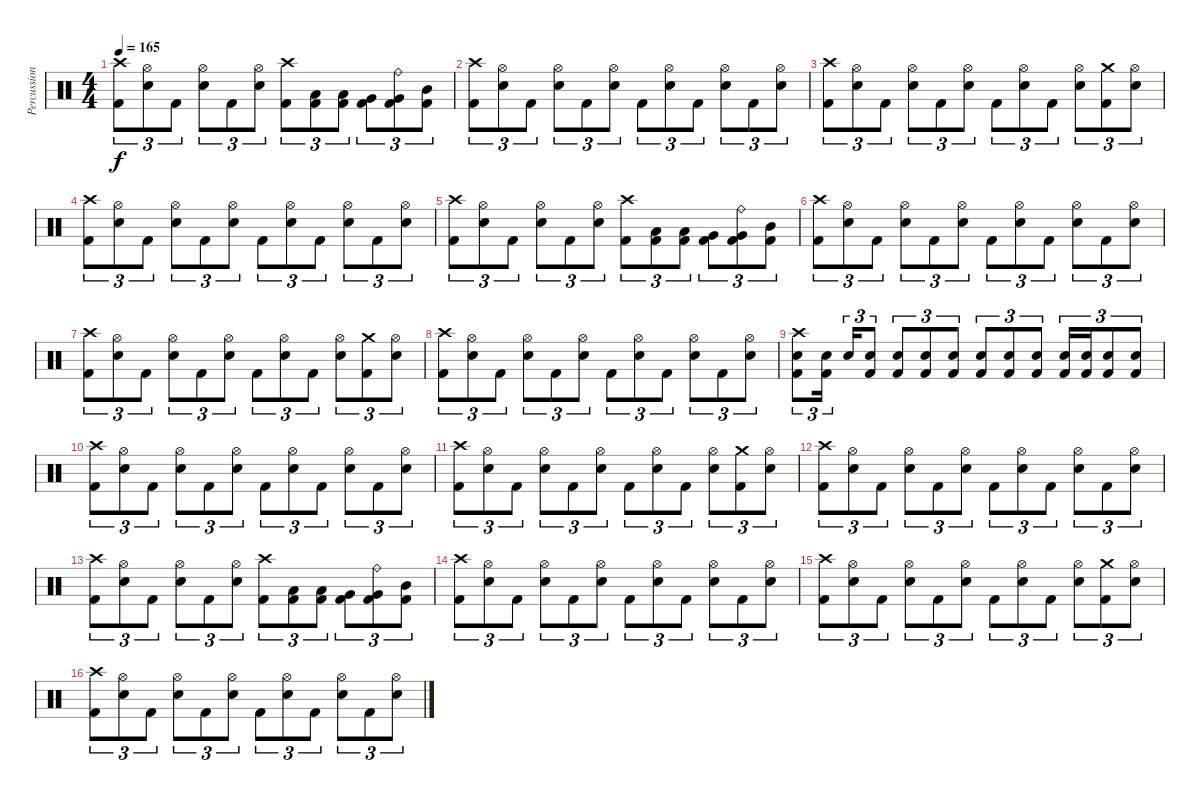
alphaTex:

\track ("Percussion" "Percussion") {instrument percussion}
\staff {score}
\articulation defaults
\ts (4 4)
\tempo 165
\clef neutral
\ks c
("Crash high (hit)" "Kick (hit) 2").8{tu (3 2) dy f} ("Hi-Hat (open)" "Electric Snare (hit)").8{tu (3 2)} "Kick (hit) 2".8{tu (3 2)} ("Hi-Hat (open)" "Electric Snare (hit)").8{tu (3 2)} "Kick (hit) 2".8{tu (3 2)} ("Hi-Hat (open)" "Electric Snare (hit)").8{tu (3 2)} ("Crash high (hit)" "Kick (hit) 2").8{tu (3 2)} ("Low Tom (hit)" "Kick (hit) 2").8{tu (3 2)} ("Low Tom (hit)" "Kick (hit) 2").8{tu (3 2)} ("Very Low Tom (hit)" "Kick (hit) 2").8{tu (3 2)} ("Ride (bell)" "Very Low Tom (hit)" "Kick (hit) 2").8{tu (3 2)} ("Mid Tom (hit)" "Kick (hit) 2").8{tu (3 2)} |
("Crash high (hit)" "Kick (hit) 2").8{tu (3 2)} ("Hi-Hat (open)" "Electric Snare (hit)").8{tu (3 2)} "Kick (hit) 2".8{tu (3 2)} ("Hi-Hat (open)" "Electric Snare (hit)").8{tu (3 2)} "Kick (hit) 2".8{tu (3 2)} ("Hi-Hat (open)" "Electric Snare (hit)").8{tu (3 2)} "Kick (hit) 2".8{tu (3 2)} ("Hi-Hat (open)" "Electric Snare (hit)").8{tu (3 2)} "Kick (hit) 2".8{tu (3 2)} ("Hi-Hat (open)" "Electric Snare (hit)").8{tu (3 2)} "Kick (hit) 2".8{tu (3 2)} ("Hi-Hat (open)" "Electric Snare (hit)").8{tu (3 2)} |
("Crash high (hit)" "Kick (hit) 2").8{tu (3 2)} ("Hi-Hat (open)" "Electric Snare (hit)").8{tu (3 2)} "Kick (hit) 2".8{tu (3 2)} ("Hi-Hat (open)" "Electric Snare (hit)").8{tu (3 2)} "Kick (hit) 2".8{tu (3 2)} ("Hi-Hat (open)" "Electric Snare (hit)").8{tu (3 2)} "Kick (hit) 2".8{tu (3 2)} ("Hi-Hat (open)" "Electric Snare (hit)").8{tu (3 2)} "Kick (hit) 2".8{tu (3 2)} ("Hi-Hat (open)" "Electric Snare (hit)").8{tu (3 2)} ("Crash medium (hit)" "Kick (hit) 2").8{tu (3 2)} ("Hi-Hat (open)" "Electric Snare (hit)").8{tu (3 2)} |
("Crash high (hit)" "Kick (hit) 2").8{tu (3 2)} ("Hi-Hat (open)" "Electric Snare (hit)").8{tu (3 2)} "Kick (hit) 2".8{tu (3 2)} ("Hi-Hat (open)" "Electric Snare (hit)").8{tu (3 2)} "Kick (hit) 2".8{tu (3 2)} ("Hi-Hat (open)" "Electric Snare (hit)").8{tu (3 2)} "Kick (hit) 2".8{tu (3 2)} ("Hi-Hat (open)" "Electric Snare (hit)").8{tu (3 2)} "Kick (hit) 2".8{tu (3 2)} ("Hi-Hat (open)" "Electric Snare (hit)").8{tu (3 2)} "Kick (hit) 2".8{tu (3 2)} ("Hi-Hat (open)" "Electric Snare (hit)").8{tu (3 2)} |
("Crash high (hit)" "Kick (hit) 2").8{tu (3 2)} ("Hi-Hat (open)" "Electric Snare (hit)").8{tu (3 2)} "Kick (hit) 2".8{tu (3 2)} ("Hi-Hat (open)" "Electric Snare (hit)").8{tu (3 2)} "Kick (hit) 2".8{tu (3 2)} ("Hi-Hat (open)" "Electric Snare (hit)").8{tu (3 2)} ("Crash high (hit)" "Kick (hit) 2").8{tu (3 2)} ("Low Tom (hit)" "Kick (hit) 2").8{tu (3 2)} ("Low Tom (hit)" "Kick (hit) 2").8{tu (3 2)} ("Very Low Tom (hit)" "Kick (hit) 2").8{tu (3 2)} ("Ride (bell)" "Very Low Tom (hit)" "Kick (hit) 2").8{tu (3 2)} ("Mid Tom (hit)" "Kick (hit) 2").8{tu (3 2)} |
("Crash high (hit)" "Kick (hit) 2").8{tu (3 2)} ("Hi-Hat (open)" "Electric Snare (hit)").8{tu (3 2)} "Kick (hit) 2".8{tu (3 2)} ("Hi-Hat (open)" "Electric Snare (hit)").8{tu (3 2)} "Kick (hit) 2".8{tu (3 2)} ("Hi-Hat (open)" "Electric Snare (hit)").8{tu (3 2)} "Kick (hit) 2".8{tu (3 2)} ("Hi-Hat (open)" "Electric Snare (hit)").8{tu (3 2)} "Kick (hit) 2".8{tu (3 2)} ("Hi-Hat (open)" "Electric Snare (hit)").8{tu (3 2)} "Kick (hit) 2".8{tu (3 2)} ("Hi-Hat (open)" "Electric Snare (hit)").8{tu (3 2)} |
("Crash high (hit)" "Kick (hit) 2").8{tu (3 2)} ("Hi-Hat (open)" "Electric Snare (hit)").8{tu (3 2)} "Kick (hit) 2".8{tu (3 2)} ("Hi-Hat (open)" "Electric Snare (hit)").8{tu (3 2)} "Kick (hit) 2".8{tu (3 2)} ("Hi-Hat (open)" "Electric Snare (hit)").8{tu (3 2)} "Kick (hit) 2".8{tu (3 2)} ("Hi-Hat (open)" "Electric Snare (hit)").8{tu (3 2)} "Kick (hit) 2".8{tu (3 2)} ("Hi-Hat (open)" "Electric Snare (hit)").8{tu (3 2)} ("Crash medium (hit)" "Kick (hit) 2").8{tu (3 2)} ("Hi-Hat (open)" "Electric Snare (hit)").8{tu (3 2)} |
("Crash high (hit)" "Kick (hit) 2").8{tu (3 2)} ("Hi-Hat (open)" "Electric Snare (hit)").8{tu (3 2)} "Kick (hit) 2".8{tu (3 2)} ("Hi-Hat (open)" "Electric Snare (hit)").8{tu (3 2)} "Kick (hit) 2".8{tu (3 2)} ("Hi-Hat (open)" "Electric Snare (hit)").8{tu (3 2)} "Kick (hit) 2".8{tu (3 2)} ("Hi-Hat (open)" "Electric Snare (hit)").8{tu (3 2)} "Kick (hit) 2".8{tu (3 2)} ("Hi-Hat (open)" "Electric Snare (hit)").8{tu (3 2)} "Kick (hit) 2".8{tu (3 2)} ("Hi-Hat (open)" "Electric Snare (hit)").8{tu (3 2)} |
("Crash high (hit)" "Electric Snare (hit)" "Kick (hit) 2").8{tu (3 2)} ("Electric Snare (hit)" "Kick (hit) 2").16{tu (3 2)} "Electric Snare (hit)".16{tu (3 2)} ("Electric Snare (hit)" "Kick (hit) 2").8{tu (3 2)} ("Electric Snare (hit)" "Kick (hit) 2").8{tu (3 2)} ("Electric Snare (hit)" "Kick (hit) 2").8{tu (3 2)} ("Electric Snare (hit)" "Kick (hit) 2").8{tu (3 2)} ("Electric Snare (hit)" "Kick (hit) 2").8{tu (3 2)} ("Electric Snare (hit)" "Kick (hit) 2").8{tu (3 2)} ("Electric Snare (hit)" "Kick (hit) 2").8{tu (3 2)} ("Electric Snare (hit)" "Kick (hit) 2").16{tu (3 2)} ("Electric Snare (hit)" "Kick (hit) 2").16{tu (3 2)} ("Electric Snare (hit)" "Kick (hit) 2").8{tu (3 2)} ("Electric Snare (hit)" "Kick (hit) 2").8{tu (3 2)} |
("Crash high (hit)" "Kick (hit) 2").8{tu (3 2)} ("Hi-Hat (open)" "Electric Snare (hit)").8{tu (3 2)} "Kick (hit) 2".8{tu (3 2)} ("Hi-Hat (open)" "Electric Snare (hit)").8{tu (3 2)} "Kick (hit) 2".8{tu (3 2)} ("Hi-Hat (open)" "Electric Snare (hit)").8{tu (3 2)} "Kick (hit) 2".8{tu (3 2)} ("Hi-Hat (open)" "Electric Snare (hit)").8{tu (3 2)} "Kick (hit) 2".8{tu (3 2)} ("Hi-Hat (open)" "Electric Snare (hit)").8{tu (3 2)} "Kick (hit) 2".8{tu (3 2)} ("Hi-Hat (open)" "Electric Snare (hit)").8{tu (3 2)} |
("Crash high (hit)" "Kick (hit) 2").8{tu (3 2)} ("Hi-Hat (open)" "Electric Snare (hit)").8{tu (3 2)} "Kick (hit) 2".8{tu (3 2)} ("Hi-Hat (open)" "Electric Snare (hit)").8{tu (3 2)} "Kick (hit) 2".8{tu (3 2)} ("Hi-Hat (open)" "Electric Snare (hit)").8{tu (3 2)} "Kick (hit) 2".8{tu (3 2)} ("Hi-Hat (open)" "Electric Snare (hit)").8{tu (3 2)} "Kick (hit) 2".8{tu (3 2)} ("Hi-Hat (open)" "Electric Snare (hit)").8{tu (3 2)} ("Crash medium (hit)" "Kick (hit) 2").8{tu (3 2)} ("Hi-Hat (open)" "Electric Snare (hit)").8{tu (3 2)} |
("Crash high (hit)" "Kick (hit) 2").8{tu (3 2)} ("Hi-Hat (open)" "Electric Snare (hit)").8{tu (3 2)} "Kick (hit) 2".8{tu (3 2)} ("Hi-Hat (open)" "Electric Snare (hit)").8{tu (3 2)} "Kick (hit) 2".8{tu (3 2)} ("Hi-Hat (open)" "Electric Snare (hit)").8{tu (3 2)} "Kick (hit) 2".8{tu (3 2)} ("Hi-Hat (open)" "Electric Snare (hit)").8{tu (3 2)} "Kick (hit) 2".8{tu (3 2)} ("Hi-Hat (open)" "Electric Snare (hit)").8{tu (3 2)} "Kick (hit) 2".8{tu (3 2)} ("Hi-Hat (open)" "Electric Snare (hit)").8{tu (3 2)} |
("Crash high (hit)" "Kick (hit) 2").8{tu (3 2)} ("Hi-Hat (open)" "Electric Snare (hit)").8{tu (3 2)} "Kick (hit) 2".8{tu (3 2)} ("Hi-Hat (open)" "Electric Snare (hit)").8{tu (3 2)} "Kick (hit) 2".8{tu (3 2)} ("Hi-Hat (open)" "Electric Snare (hit)").8{tu (3 2)} ("Crash high (hit)" "Kick (hit) 2").8{tu (3 2)} ("Low Tom (hit)" "Kick (hit) 2").8{tu (3 2)} ("Low Tom (hit)" "Kick (hit) 2").8{tu (3 2)} ("Very Low Tom (hit)" "Kick (hit) 2").8{tu (3 2)} ("Ride (bell)" "Very Low Tom (hit)" "Kick (hit) 2").8{tu (3 2)} ("Mid Tom (hit)" "Kick (hit) 2").8{tu (3 2)} |
("Crash high (hit)" "Kick (hit) 2").8{tu (3 2)} ("Hi-Hat (open)" "Electric Snare (hit)").8{tu (3 2)} "Kick (hit) 2".8{tu (3 2)} ("Hi-Hat (open)" "Electric Snare (hit)").8{tu (3 2)} "Kick (hit) 2".8{tu (3 2)} ("Hi-Hat (open)" "Electric Snare (hit)").8{tu (3 2)} "Kick (hit) 2".8{tu (3 2)} ("Hi-Hat (open)" "Electric Snare (hit)").8{tu (3 2)} "Kick (hit) 2".8{tu (3 2)} ("Hi-Hat (open)" "Electric Snare (hit)").8{tu (3 2)} "Kick (hit) 2".8{tu (3 2)} ("Hi-Hat (open)" "Electric Snare (hit)").8{tu (3 2)} |
("Crash high (hit)" "Kick (hit) 2").8{tu (3 2)} ("Hi-Hat (open)" "Electric Snare (hit)").8{tu (3 2)} "Kick (hit) 2".8{tu (3 2)} ("Hi-Hat (open)" "Electric Snare (hit)").8{tu (3 2)} "Kick (hit) 2".8{tu (3 2)} ("Hi-Hat (open)" "Electric Snare (hit)").8{tu (3 2)} "Kick (hit) 2".8{tu (3 2)} ("Hi-Hat (open)" "Electric Snare (hit)").8{tu (3 2)} "Kick (hit) 2".8{tu (3 2)} ("Hi-Hat (open)" "Electric Snare (hit)").8{tu (3 2)} ("Crash medium (hit)" "Kick (hit) 2").8{tu (3 2)} ("Hi-Hat (open)" "Electric Snare (hit)").8{tu (3 2)} |
("Crash high (hit)" "Kick (hit) 2").8{tu (3 2)} ("Hi-Hat (open)" "Electric Snare (hit)").8{tu (3 2)} "Kick (hit) 2".8{tu (3 2)} ("Hi-Hat (open)" "Electric Snare (hit)").8{tu (3 2)} "Kick (hit) 2".8{tu (3 2)} ("Hi-Hat (open)" "Electric Snare (hit)").8{tu (3 2)} "Kick (hit) 2".8{tu (3 2)} ("Hi-Hat (open)" "Electric Snare (hit)").8{tu (3 2)} "Kick (hit) 2".8{tu (3 2)} ("Hi-Hat (open)" "Electric Snare (hit)").8{tu (3 2)} "Kick (hit) 2".8{tu (3 2)} ("Hi-Hat (open)" "Electric Snare (hit)").8{tu (3 2)}
